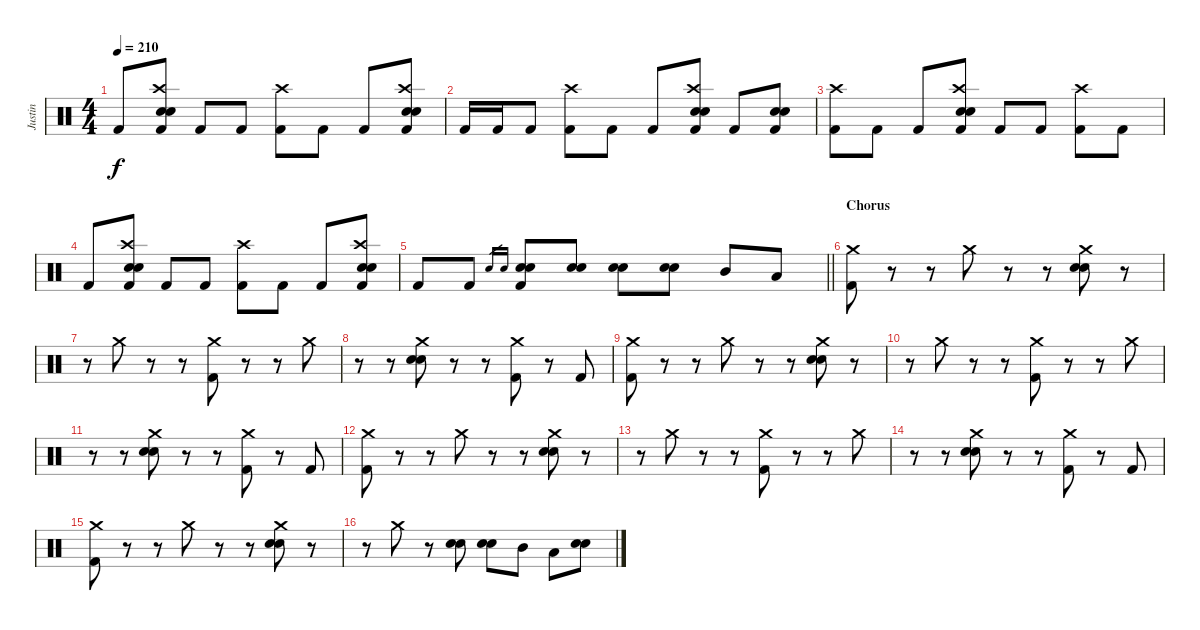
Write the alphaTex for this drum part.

\track ("Justin" "Justin") {instrument percussion}
\staff {score}
\articulation defaults
\ts (4 4)
\tempo 210
\clef neutral
\ks c "Kick (hit) 2".8{dy f}
("Crash high (hit)" "Electric Snare (hit)" "Snare (hit) 2" "Kick (hit) 2").8 "Kick (hit) 2".8 "Kick (hit) 2".8 ("Crash high (hit)" "Kick (hit) 2").8 "Kick (hit) 2".8 "Kick (hit) 2".8 ("Crash high (hit)" "Electric Snare (hit)" "Snare (hit) 2" "Kick (hit) 2").8 |
"Kick (hit) 2".16 "Kick (hit) 2".16 "Kick (hit) 2".8 ("Crash high (hit)" "Kick (hit) 2").8 "Kick (hit) 2".8 "Kick (hit) 2".8 ("Crash high (hit)" "Electric Snare (hit)" "Snare (hit) 2" "Kick (hit) 2").8 "Kick (hit) 2".8 ("Electric Snare (hit)" "Snare (hit) 2" "Kick (hit) 2").8 |
("Crash high (hit)" "Kick (hit) 2").8 "Kick (hit) 2".8 "Kick (hit) 2".8 ("Crash high (hit)" "Electric Snare (hit)" "Snare (hit) 2" "Kick (hit) 2").8 "Kick (hit) 2".8 "Kick (hit) 2".8 ("Crash high (hit)" "Kick (hit) 2").8 "Kick (hit) 2".8 |
"Kick (hit) 2".8 ("Crash high (hit)" "Electric Snare (hit)" "Snare (hit) 2" "Kick (hit) 2").8 "Kick (hit) 2".8 "Kick (hit) 2".8 ("Crash high (hit)" "Kick (hit) 2").8 "Kick (hit) 2".8 "Kick (hit) 2".8 ("Crash high (hit)" "Electric Snare (hit)" "Snare (hit) 2" "Kick (hit) 2").8 |
\barLineRight lightlight "Kick (hit) 2".8 "Kick (hit) 2".8 "Electric Snare (hit)".16{gr} "Snare (hit) 2".16{gr}
("Electric Snare (hit)" "Snare (hit) 2" "Kick (hit) 2").8 ("Electric Snare (hit)" "Snare (hit) 2").8 ("Electric Snare (hit)" "Snare (hit) 2").8 ("Electric Snare (hit)" "Snare (hit) 2").8 "Mid Tom (hit)".8 "Low Tom (hit)".8 |
\section ("" "Chorus")
("Crash medium (hit)" "Kick (hit) 2").8 r.8 r.8 "Crash medium (hit)".8 r.8 r.8 ("Crash medium (hit)" "Electric Snare (hit)" "Snare (hit) 2").8 r.8 |
r.8 "Crash medium (hit)".8 r.8 r.8 ("Crash medium (hit)" "Kick (hit) 2").8 r.8 r.8 "Crash medium (hit)".8 |
r.8 r.8 ("Crash medium (hit)" "Electric Snare (hit)" "Snare (hit) 2").8 r.8 r.8 ("Crash medium (hit)" "Kick (hit) 2").8 r.8 "Kick (hit) 2".8 |
("Crash medium (hit)" "Kick (hit) 2").8 r.8 r.8 "Crash medium (hit)".8 r.8 r.8 ("Crash medium (hit)" "Electric Snare (hit)" "Snare (hit) 2").8 r.8 |
r.8 "Crash medium (hit)".8 r.8 r.8 ("Crash medium (hit)" "Kick (hit) 2").8 r.8 r.8 "Crash medium (hit)".8 |
r.8 r.8 ("Crash medium (hit)" "Electric Snare (hit)" "Snare (hit) 2").8 r.8 r.8 ("Crash medium (hit)" "Kick (hit) 2").8 r.8 "Kick (hit) 2".8 |
("Crash medium (hit)" "Kick (hit) 2").8 r.8 r.8 "Crash medium (hit)".8 r.8 r.8 ("Crash medium (hit)" "Electric Snare (hit)" "Snare (hit) 2").8 r.8 |
r.8 "Crash medium (hit)".8 r.8 r.8 ("Crash medium (hit)" "Kick (hit) 2").8 r.8 r.8 "Crash medium (hit)".8 |
r.8 r.8 ("Crash medium (hit)" "Electric Snare (hit)" "Snare (hit) 2").8 r.8 r.8 ("Crash medium (hit)" "Kick (hit) 2").8 r.8 "Kick (hit) 2".8 |
("Crash medium (hit)" "Kick (hit) 2").8 r.8 r.8 "Crash medium (hit)".8 r.8 r.8 ("Crash medium (hit)" "Electric Snare (hit)" "Snare (hit) 2").8 r.8 |
r.8 "Crash medium (hit)".8 r.8 ("Electric Snare (hit)" "Snare (hit) 2").8 ("Electric Snare (hit)" "Snare (hit) 2").8 "Mid Tom (hit)".8 "Low Tom (hit)".8 ("Electric Snare (hit)" "Snare (hit) 2").8
